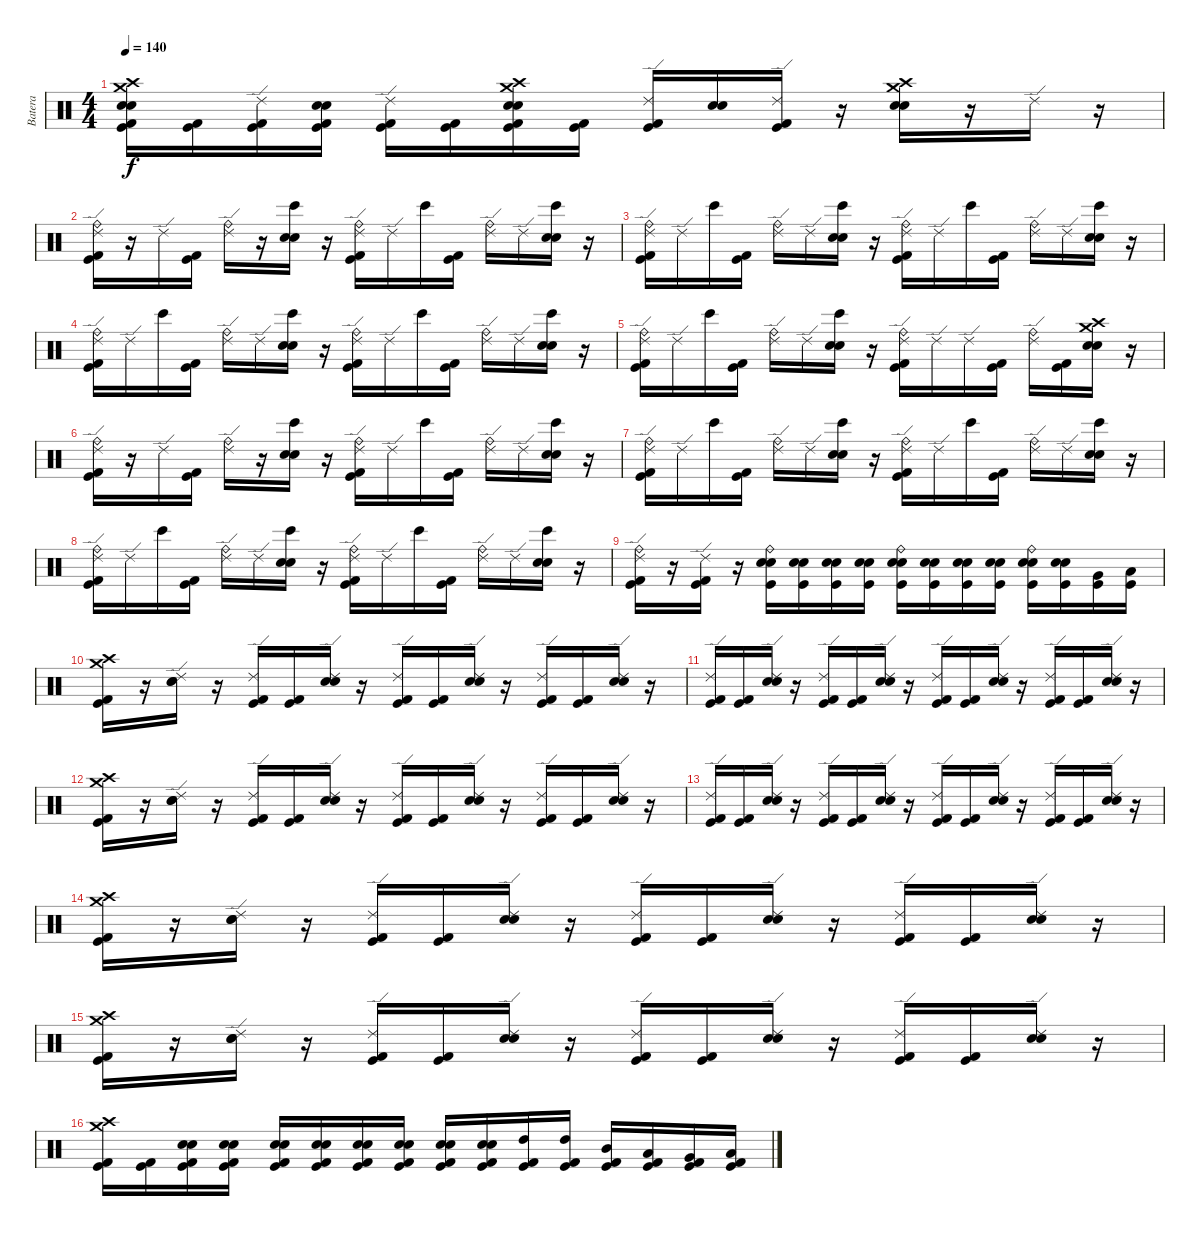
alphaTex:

\track ("Batera" "Batera") {instrument percussion}
\staff {score}
\articulation defaults
\ts (4 4)
\tempo 140
\clef neutral
\ks c
("Crash high (hit)" "Crash medium (hit)" "Electric Snare (hit)" "Snare (hit) 2" "Kick (hit) 2" "Kick (hit)").16{dy f} ("Kick (hit) 2" "Kick (hit)").16 ("Ride (edge) 2" "Kick (hit) 2" "Kick (hit)").16 ("Electric Snare (hit)" "Snare (hit) 2" "Kick (hit) 2" "Kick (hit)").16 ("Ride (edge) 2" "Kick (hit) 2" "Kick (hit)").16 ("Kick (hit) 2" "Kick (hit)").16 ("Crash high (hit)" "Crash medium (hit)" "Electric Snare (hit)" "Snare (hit) 2" "Kick (hit) 2" "Kick (hit)").16 ("Kick (hit) 2" "Kick (hit)").16 ("Ride (edge) 2" "Kick (hit) 2" "Kick (hit)").16 ("Electric Snare (hit)" "Snare (hit) 2").16 ("Ride (edge) 2" "Kick (hit) 2" "Kick (hit)").16 r.16 ("Crash high (hit)" "Crash medium (hit)" "Electric Snare (hit)" "Snare (hit) 2").16 r.16 "Ride (edge) 2".16 r.16 |
("Ride (bell)" "Ride (edge) 2" "Kick (hit) 2" "Kick (hit)").16 r.16 "Ride (edge) 2".16 ("Kick (hit) 2" "Kick (hit)").16 ("Ride (bell)" "Ride (edge) 2").16 r.16 ("Bongo High (hit)" "Electric Snare (hit)" "Snare (hit) 2").16 r.16 ("Ride (bell)" "Kick (hit) 2" "Kick (hit)" "Ride (edge) 2").16 "Ride (edge) 2".16 "Bongo High (hit)".16 ("Kick (hit) 2" "Kick (hit)").16 ("Ride (bell)" "Ride (edge) 2").16 "Ride (edge) 2".16 ("Electric Snare (hit)" "Snare (hit) 2" "Bongo High (hit)").16 r.16 |
("Ride (bell)" "Ride (edge) 2" "Kick (hit) 2" "Kick (hit)").16 "Ride (edge) 2".16 "Bongo High (hit)".16 ("Kick (hit) 2" "Kick (hit)").16 ("Ride (bell)" "Ride (edge) 2").16 "Ride (edge) 2".16 ("Bongo High (hit)" "Electric Snare (hit)" "Snare (hit) 2").16 r.16 ("Ride (bell)" "Ride (edge) 2" "Kick (hit) 2" "Kick (hit)").16 "Ride (edge) 2".16 "Bongo High (hit)".16 ("Kick (hit) 2" "Kick (hit)").16 ("Ride (bell)" "Ride (edge) 2").16 "Ride (edge) 2".16 ("Bongo High (hit)" "Electric Snare (hit)" "Snare (hit) 2").16 r.16 |
("Ride (bell)" "Ride (edge) 2" "Kick (hit) 2" "Kick (hit)").16 "Ride (edge) 2".16 "Bongo High (hit)".16 ("Kick (hit) 2" "Kick (hit)").16 ("Ride (bell)" "Ride (edge) 2").16 "Ride (edge) 2".16 ("Bongo High (hit)" "Electric Snare (hit)" "Snare (hit) 2").16 r.16 ("Ride (bell)" "Ride (edge) 2" "Kick (hit) 2" "Kick (hit)").16 "Ride (edge) 2".16 "Bongo High (hit)".16 ("Kick (hit) 2" "Kick (hit)").16 ("Ride (bell)" "Ride (edge) 2").16 "Ride (edge) 2".16 ("Bongo High (hit)" "Electric Snare (hit)" "Snare (hit) 2").16 r.16 |
("Ride (bell)" "Ride (edge) 2" "Kick (hit) 2" "Kick (hit)").16 "Ride (edge) 2".16 "Bongo High (hit)".16 ("Kick (hit) 2" "Kick (hit)").16 ("Ride (bell)" "Ride (edge) 2").16 "Ride (edge) 2".16 ("Bongo High (hit)" "Electric Snare (hit)" "Snare (hit) 2").16 r.16 ("Ride (bell)" "Ride (edge) 2" "Kick (hit) 2" "Kick (hit)").16 "Ride (edge) 2".16 "Ride (edge) 2".16 ("Kick (hit) 2" "Kick (hit)").16 ("Ride (bell)" "Ride (edge) 2").16 ("Kick (hit) 2" "Kick (hit)").16 ("Crash high (hit)" "Crash medium (hit)" "Electric Snare (hit)" "Snare (hit) 2").16 r.16 |
("Ride (bell)" "Ride (edge) 2" "Kick (hit) 2" "Kick (hit)").16 r.16 "Ride (edge) 2".16 ("Kick (hit) 2" "Kick (hit)").16 ("Ride (bell)" "Ride (edge) 2").16 r.16 ("Bongo High (hit)" "Electric Snare (hit)" "Snare (hit) 2").16 r.16 ("Ride (bell)" "Kick (hit) 2" "Kick (hit)" "Ride (edge) 2").16 "Ride (edge) 2".16 "Bongo High (hit)".16 ("Kick (hit) 2" "Kick (hit)").16 ("Ride (bell)" "Ride (edge) 2").16 "Ride (edge) 2".16 ("Electric Snare (hit)" "Snare (hit) 2" "Bongo High (hit)").16 r.16 |
("Ride (bell)" "Ride (edge) 2" "Kick (hit) 2" "Kick (hit)").16 "Ride (edge) 2".16 "Bongo High (hit)".16 ("Kick (hit) 2" "Kick (hit)").16 ("Ride (bell)" "Ride (edge) 2").16 "Ride (edge) 2".16 ("Bongo High (hit)" "Electric Snare (hit)" "Snare (hit) 2").16 r.16 ("Ride (bell)" "Ride (edge) 2" "Kick (hit) 2" "Kick (hit)").16 "Ride (edge) 2".16 "Bongo High (hit)".16 ("Kick (hit) 2" "Kick (hit)").16 ("Ride (bell)" "Ride (edge) 2").16 "Ride (edge) 2".16 ("Bongo High (hit)" "Electric Snare (hit)" "Snare (hit) 2").16 r.16 |
("Ride (bell)" "Ride (edge) 2" "Kick (hit) 2" "Kick (hit)").16 "Ride (edge) 2".16 "Bongo High (hit)".16 ("Kick (hit) 2" "Kick (hit)").16 ("Ride (bell)" "Ride (edge) 2").16 "Ride (edge) 2".16 ("Bongo High (hit)" "Electric Snare (hit)" "Snare (hit) 2").16 r.16 ("Ride (bell)" "Ride (edge) 2" "Kick (hit) 2" "Kick (hit)").16 "Ride (edge) 2".16 "Bongo High (hit)".16 ("Kick (hit) 2" "Kick (hit)").16 ("Ride (bell)" "Ride (edge) 2").16 "Ride (edge) 2".16 ("Bongo High (hit)" "Electric Snare (hit)" "Snare (hit) 2").16 r.16 |
("Ride (bell)" "Ride (edge) 2" "Kick (hit) 2" "Kick (hit)").16 r.16 ("Ride (edge) 2" "Kick (hit) 2" "Kick (hit)").16 r.16 ("Kick (hit)" "Electric Snare (hit)" "Snare (hit) 2" "Ride (bell)").16 ("Kick (hit)" "Electric Snare (hit)" "Snare (hit) 2").16 ("Kick (hit)" "Electric Snare (hit)" "Snare (hit) 2").16 ("Kick (hit)" "Electric Snare (hit)" "Snare (hit) 2").16 ("Kick (hit)" "Electric Snare (hit)" "Snare (hit) 2" "Ride (bell)").16 ("Kick (hit)" "Electric Snare (hit)" "Snare (hit) 2").16 ("Kick (hit)" "Electric Snare (hit)" "Snare (hit) 2").16 ("Kick (hit)" "Electric Snare (hit)" "Snare (hit) 2").16 ("Kick (hit)" "Electric Snare (hit)" "Snare (hit) 2" "Ride (bell)").16 ("Kick (hit)" "Electric Snare (hit)" "Snare (hit) 2").16 ("Very Low Tom (hit)" "Kick (hit)").16 ("Low Floor Tom (hit)" "Kick (hit)").16 |
("Crash high (hit)" "Crash medium (hit)" "Kick (hit) 2" "Kick (hit)").16 r.16 ("Ride (edge) 2" "Electric Snare (hit)" "Snare (hit) 2").16 r.16 ("Ride (edge) 2" "Kick (hit) 2" "Kick (hit)").16 ("Kick (hit) 2" "Kick (hit)").16 ("Ride (edge) 2" "Electric Snare (hit)" "Snare (hit) 2").16 r.16 ("Ride (edge) 2" "Kick (hit) 2" "Kick (hit)").16 ("Kick (hit) 2" "Kick (hit)").16 ("Ride (edge) 2" "Electric Snare (hit)" "Snare (hit) 2").16 r.16 ("Ride (edge) 2" "Kick (hit) 2" "Kick (hit)").16 ("Kick (hit) 2" "Kick (hit)").16 ("Ride (edge) 2" "Electric Snare (hit)" "Snare (hit) 2").16 r.16 |
("Ride (edge) 2" "Kick (hit) 2" "Kick (hit)").16 ("Kick (hit) 2" "Kick (hit)").16 ("Ride (edge) 2" "Electric Snare (hit)" "Snare (hit) 2").16 r.16 ("Ride (edge) 2" "Kick (hit) 2" "Kick (hit)").16 ("Kick (hit) 2" "Kick (hit)").16 ("Ride (edge) 2" "Snare (hit) 2" "Electric Snare (hit)").16 r.16 ("Ride (edge) 2" "Kick (hit) 2" "Kick (hit)").16 ("Kick (hit) 2" "Kick (hit)").16 ("Ride (edge) 2" "Electric Snare (hit)" "Snare (hit) 2").16 r.16 ("Ride (edge) 2" "Kick (hit) 2" "Kick (hit)").16 ("Kick (hit) 2" "Kick (hit)").16 ("Ride (edge) 2" "Electric Snare (hit)" "Snare (hit) 2").16 r.16 |
("Crash high (hit)" "Crash medium (hit)" "Kick (hit) 2" "Kick (hit)").16 r.16 ("Ride (edge) 2" "Electric Snare (hit)" "Snare (hit) 2").16 r.16 ("Ride (edge) 2" "Kick (hit) 2" "Kick (hit)").16 ("Kick (hit) 2" "Kick (hit)").16 ("Ride (edge) 2" "Electric Snare (hit)" "Snare (hit) 2").16 r.16 ("Ride (edge) 2" "Kick (hit) 2" "Kick (hit)").16 ("Kick (hit) 2" "Kick (hit)").16 ("Ride (edge) 2" "Electric Snare (hit)" "Snare (hit) 2").16 r.16 ("Ride (edge) 2" "Kick (hit) 2" "Kick (hit)").16 ("Kick (hit) 2" "Kick (hit)").16 ("Ride (edge) 2" "Electric Snare (hit)" "Snare (hit) 2").16 r.16 |
("Ride (edge) 2" "Kick (hit) 2" "Kick (hit)").16 ("Kick (hit) 2" "Kick (hit)").16 ("Ride (edge) 2" "Electric Snare (hit)" "Snare (hit) 2").16 r.16 ("Ride (edge) 2" "Kick (hit) 2" "Kick (hit)").16 ("Kick (hit) 2" "Kick (hit)").16 ("Ride (edge) 2" "Snare (hit) 2" "Electric Snare (hit)").16 r.16 ("Ride (edge) 2" "Kick (hit) 2" "Kick (hit)").16 ("Kick (hit) 2" "Kick (hit)").16 ("Ride (edge) 2" "Electric Snare (hit)" "Snare (hit) 2").16 r.16 ("Ride (edge) 2" "Kick (hit) 2" "Kick (hit)").16 ("Kick (hit) 2" "Kick (hit)").16 ("Ride (edge) 2" "Electric Snare (hit)" "Snare (hit) 2").16 r.16 |
("Crash high (hit)" "Crash medium (hit)" "Kick (hit) 2" "Kick (hit)").16 r.16 ("Ride (edge) 2" "Electric Snare (hit)" "Snare (hit) 2").16 r.16 ("Ride (edge) 2" "Kick (hit) 2" "Kick (hit)").16 ("Kick (hit) 2" "Kick (hit)").16 ("Ride (edge) 2" "Electric Snare (hit)" "Snare (hit) 2").16 r.16 ("Ride (edge) 2" "Kick (hit) 2" "Kick (hit)").16 ("Kick (hit) 2" "Kick (hit)").16 ("Ride (edge) 2" "Electric Snare (hit)" "Snare (hit) 2").16 r.16 ("Ride (edge) 2" "Kick (hit) 2" "Kick (hit)").16 ("Kick (hit) 2" "Kick (hit)").16 ("Ride (edge) 2" "Electric Snare (hit)" "Snare (hit) 2").16 r.16 |
("Crash medium (hit)" "Crash high (hit)" "Kick (hit) 2" "Kick (hit)").16 r.16 ("Ride (edge) 2" "Electric Snare (hit)" "Snare (hit) 2").16 r.16 ("Ride (edge) 2" "Kick (hit) 2" "Kick (hit)").16 ("Kick (hit) 2" "Kick (hit)").16 ("Ride (edge) 2" "Snare (hit) 2" "Electric Snare (hit)").16 r.16 ("Ride (edge) 2" "Kick (hit) 2" "Kick (hit)").16 ("Kick (hit) 2" "Kick (hit)").16 ("Ride (edge) 2" "Electric Snare (hit)" "Snare (hit) 2").16 r.16 ("Ride (edge) 2" "Kick (hit) 2" "Kick (hit)").16 ("Kick (hit) 2" "Kick (hit)").16 ("Ride (edge) 2" "Electric Snare (hit)" "Snare (hit) 2").16 r.16 |
("Crash high (hit)" "Crash medium (hit)" "Kick (hit) 2" "Kick (hit)").16 ("Kick (hit) 2" "Kick (hit)").16 ("Electric Snare (hit)" "Snare (hit) 2" "Kick (hit) 2" "Kick (hit)").16 ("Electric Snare (hit)" "Snare (hit) 2" "Kick (hit) 2" "Kick (hit)").16 ("Electric Snare (hit)" "Snare (hit) 2" "Kick (hit) 2" "Kick (hit)").16 ("Electric Snare (hit)" "Snare (hit) 2" "Kick (hit) 2" "Kick (hit)").16 ("Electric Snare (hit)" "Snare (hit) 2" "Kick (hit) 2" "Kick (hit)").16 ("Electric Snare (hit)" "Snare (hit) 2" "Kick (hit) 2" "Kick (hit)").16 ("Electric Snare (hit)" "Snare (hit) 2" "Kick (hit) 2" "Kick (hit)").16 ("Electric Snare (hit)" "Snare (hit) 2" "Kick (hit) 2" "Kick (hit)").16 ("High Tom (hit)" "Kick (hit) 2" "Kick (hit)").16 ("High Tom (hit)" "Kick (hit) 2" "Kick (hit)").16 ("Mid Tom (hit)" "Kick (hit) 2" "Kick (hit)").16 ("Low Tom (hit)" "Kick (hit) 2" "Kick (hit)").16 ("Very Low Tom (hit)" "Kick (hit) 2" "Kick (hit)").16 ("Low Floor Tom (hit)" "Kick (hit) 2" "Kick (hit)").16
